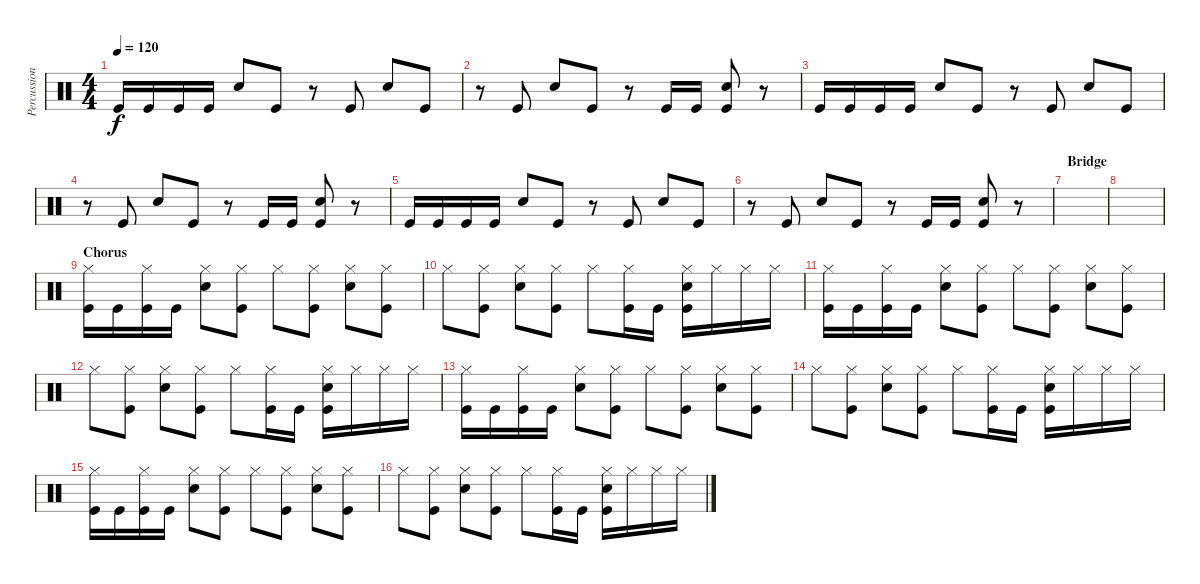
\track ("Percussion" "Percussion") {instrument percussion}
\staff {score}
\articulation defaults
\ts (4 4)
\tempo 120
\clef neutral
\ks c "Kick (hit)".16{dy f} "Kick (hit)".16 "Kick (hit)".16 "Kick (hit)".16 "Hand Clap (hit)".8 "Kick (hit)".8
r.8 "Kick (hit)".8 "Hand Clap (hit)".8 "Kick (hit)".8 |
r.8 "Kick (hit)".8 "Hand Clap (hit)".8 "Kick (hit)".8 r.8 "Kick (hit)".16 "Kick (hit)".16 ("Kick (hit)" "Hand Clap (hit)").8 r.8 |
"Kick (hit)".16 "Kick (hit)".16 "Kick (hit)".16 "Kick (hit)".16 "Hand Clap (hit)".8 "Kick (hit)".8 r.8 "Kick (hit)".8 "Hand Clap (hit)".8 "Kick (hit)".8 |
r.8 "Kick (hit)".8 "Hand Clap (hit)".8 "Kick (hit)".8 r.8 "Kick (hit)".16 "Kick (hit)".16 ("Kick (hit)" "Hand Clap (hit)").8 r.8 |
"Kick (hit)".16 "Kick (hit)".16 "Kick (hit)".16 "Kick (hit)".16 "Hand Clap (hit)".8 "Kick (hit)".8 r.8 "Kick (hit)".8 "Hand Clap (hit)".8 "Kick (hit)".8 |
r.8 "Kick (hit)".8 "Hand Clap (hit)".8 "Kick (hit)".8 r.8 "Kick (hit)".16 "Kick (hit)".16 ("Kick (hit)" "Hand Clap (hit)").8 r.8 |
\section ("" "Bridge")
|
|
\section ("" "Chorus")
("Kick (hit)" "Hi-Hat (closed)").16 "Kick (hit)".16 ("Kick (hit)" "Hi-Hat (closed)").16 "Kick (hit)".16 ("Hi-Hat (closed)" "Hand Clap (hit)").8 ("Kick (hit)" "Hi-Hat (closed)").8 "Hi-Hat (closed)".8 ("Kick (hit)" "Hi-Hat (closed)").8 ("Hi-Hat (closed)" "Hand Clap (hit)").8 ("Kick (hit)" "Hi-Hat (closed)").8 |
"Hi-Hat (closed)".8 ("Kick (hit)" "Hi-Hat (closed)").8 ("Hi-Hat (closed)" "Hand Clap (hit)").8 ("Kick (hit)" "Hi-Hat (closed)").8 "Hi-Hat (closed)".8 ("Kick (hit)" "Hi-Hat (closed)").16 "Kick (hit)".16 ("Kick (hit)" "Hi-Hat (closed)" "Hand Clap (hit)").16 "Hi-Hat (closed)".16 "Hi-Hat (closed)".16 "Hi-Hat (closed)".16 |
("Kick (hit)" "Hi-Hat (closed)").16 "Kick (hit)".16 ("Kick (hit)" "Hi-Hat (closed)").16 "Kick (hit)".16 ("Hi-Hat (closed)" "Hand Clap (hit)").8 ("Kick (hit)" "Hi-Hat (closed)").8 "Hi-Hat (closed)".8 ("Kick (hit)" "Hi-Hat (closed)").8 ("Hi-Hat (closed)" "Hand Clap (hit)").8 ("Kick (hit)" "Hi-Hat (closed)").8 |
"Hi-Hat (closed)".8 ("Kick (hit)" "Hi-Hat (closed)").8 ("Hi-Hat (closed)" "Hand Clap (hit)").8 ("Kick (hit)" "Hi-Hat (closed)").8 "Hi-Hat (closed)".8 ("Kick (hit)" "Hi-Hat (closed)").16 "Kick (hit)".16 ("Kick (hit)" "Hi-Hat (closed)" "Hand Clap (hit)").16 "Hi-Hat (closed)".16 "Hi-Hat (closed)".16 "Hi-Hat (closed)".16 |
("Kick (hit)" "Hi-Hat (closed)").16 "Kick (hit)".16 ("Kick (hit)" "Hi-Hat (closed)").16 "Kick (hit)".16 ("Hi-Hat (closed)" "Hand Clap (hit)").8 ("Kick (hit)" "Hi-Hat (closed)").8 "Hi-Hat (closed)".8 ("Kick (hit)" "Hi-Hat (closed)").8 ("Hi-Hat (closed)" "Hand Clap (hit)").8 ("Kick (hit)" "Hi-Hat (closed)").8 |
"Hi-Hat (closed)".8 ("Kick (hit)" "Hi-Hat (closed)").8 ("Hi-Hat (closed)" "Hand Clap (hit)").8 ("Kick (hit)" "Hi-Hat (closed)").8 "Hi-Hat (closed)".8 ("Kick (hit)" "Hi-Hat (closed)").16 "Kick (hit)".16 ("Kick (hit)" "Hi-Hat (closed)" "Hand Clap (hit)").16 "Hi-Hat (closed)".16 "Hi-Hat (closed)".16 "Hi-Hat (closed)".16 |
("Kick (hit)" "Hi-Hat (closed)").16 "Kick (hit)".16 ("Kick (hit)" "Hi-Hat (closed)").16 "Kick (hit)".16 ("Hi-Hat (closed)" "Hand Clap (hit)").8 ("Kick (hit)" "Hi-Hat (closed)").8 "Hi-Hat (closed)".8 ("Kick (hit)" "Hi-Hat (closed)").8 ("Hi-Hat (closed)" "Hand Clap (hit)").8 ("Kick (hit)" "Hi-Hat (closed)").8 |
"Hi-Hat (closed)".8 ("Kick (hit)" "Hi-Hat (closed)").8 ("Hi-Hat (closed)" "Hand Clap (hit)").8 ("Kick (hit)" "Hi-Hat (closed)").8 "Hi-Hat (closed)".8 ("Kick (hit)" "Hi-Hat (closed)").16 "Kick (hit)".16 ("Kick (hit)" "Hi-Hat (closed)" "Hand Clap (hit)").16 "Hi-Hat (closed)".16 "Hi-Hat (closed)".16 "Hi-Hat (closed)".16
